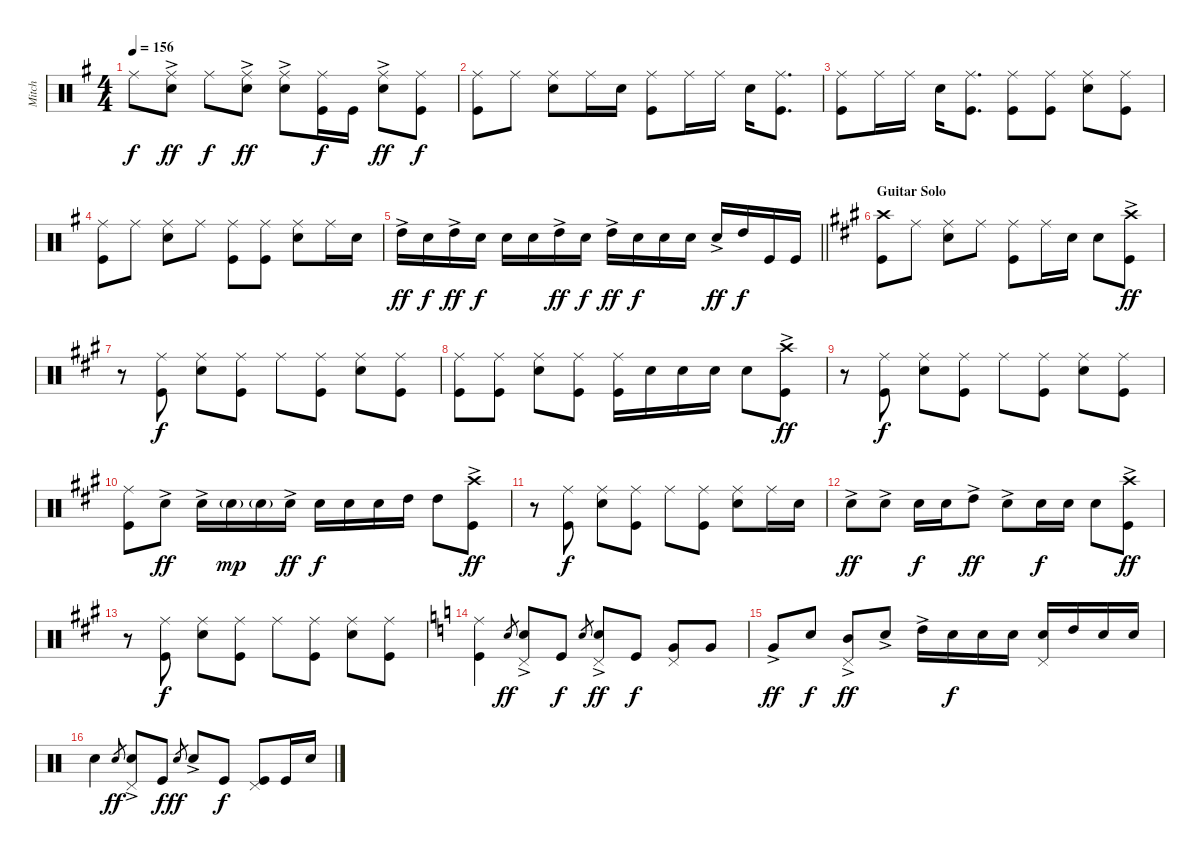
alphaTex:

\track ("Mitch" "Mitch") {instrument percussion}
\staff {score}
\articulation defaults
\ts (4 4)
\tempo 156
\clef neutral
\ks g "Ride (middle)".8{dy f}
("Ride (middle)" "Snare (hit) 2"{ac}).8{dy ff} "Ride (middle)".8{dy f} ("Ride (middle)" "Snare (hit) 2"{ac}).8{dy ff} ("Ride (middle)" "Snare (hit) 2"{ac}).8 ("Ride (middle)" "Kick (hit)").16{dy f} "Kick (hit)".16 ("Ride (middle)" "Snare (hit) 2"{ac}).8{dy ff} ("Ride (middle)" "Kick (hit)").8{dy f} |
("Ride (middle)" "Kick (hit)").8 "Ride (middle)".8 ("Ride (middle)" "Snare (hit) 2").8 "Ride (middle)".16 "Snare (hit) 2".16 ("Ride (middle)" "Kick (hit)").8 "Ride (middle)".16 "Ride (middle)".16 "Snare (hit) 2".16 ("Ride (middle)" "Kick (hit)").8{d} |
("Ride (middle)" "Kick (hit)").8 "Ride (middle)".16 "Ride (middle)".16 "Snare (hit) 2".16 ("Ride (middle)" "Kick (hit)").8{d} ("Ride (middle)" "Kick (hit)").8 ("Ride (middle)" "Kick (hit)").8 ("Ride (middle)" "Snare (hit) 2").8 ("Ride (middle)" "Kick (hit)").8 |
("Ride (middle)" "Kick (hit)").8 "Ride (middle)".8 ("Ride (middle)" "Snare (hit) 2").8 "Ride (middle)".8 ("Ride (middle)" "Kick (hit)").8 ("Ride (middle)" "Kick (hit)").8 ("Ride (middle)" "Snare (hit) 2").8 "Ride (middle)".16 "Snare (hit) 2".16 |
\barLineRight lightlight "High Tom (hit)"{ac}.16{dy ff} "Snare (hit) 2".16{dy f} "High Tom (hit)"{ac}.16{dy ff} "Snare (hit) 2".16{dy f} "Snare (hit) 2".16 "Snare (hit) 2".16 "High Tom (hit)"{ac}.16{dy ff} "Snare (hit) 2".16{dy f} "High Tom (hit)"{ac}.16{dy ff} "Snare (hit) 2".16{dy f} "Snare (hit) 2".16 "Snare (hit) 2".16 "Snare (hit) 2"{ac}.16{dy ff} "High Tom (hit)".16{dy f} "Kick (hit)".16 "Kick (hit)".16
|
\section ("" "Guitar Solo")
\ks a
("Crash high (hit)" "Kick (hit)").8 "Ride (middle)".8 ("Ride (middle)" "Snare (hit) 2").8 "Ride (middle)".8 ("Ride (middle)" "Kick (hit)").8 "Ride (middle)".16 "Snare (hit) 2".16 "Snare (hit) 2".8 ("Crash high (hit)"{ac} "Kick (hit)").8{dy ff} |
r.8 ("Ride (middle)" "Kick (hit)").8{dy f} ("Ride (middle)" "Snare (hit) 2").8 ("Ride (middle)" "Kick (hit)").8 "Ride (middle)".8 ("Ride (middle)" "Kick (hit)").8 ("Ride (middle)" "Snare (hit) 2").8 ("Ride (middle)" "Kick (hit)").8 |
("Ride (middle)" "Kick (hit)").8 ("Ride (middle)" "Kick (hit)").8 ("Ride (middle)" "Snare (hit) 2").8 ("Ride (middle)" "Kick (hit)").8 ("Ride (middle)" "Kick (hit)").16 "Snare (hit) 2".16 "Snare (hit) 2".16 "Snare (hit) 2".16 "Snare (hit) 2".8 ("Crash high (hit)"{ac} "Kick (hit)").8{dy ff} |
r.8 ("Ride (middle)" "Kick (hit)").8{dy f} ("Ride (middle)" "Snare (hit) 2").8 ("Ride (middle)" "Kick (hit)").8 "Ride (middle)".8 ("Ride (middle)" "Kick (hit)").8 ("Ride (middle)" "Snare (hit) 2").8 ("Ride (middle)" "Kick (hit)").8 |
("Ride (middle)" "Kick (hit)").8 "Snare (hit) 2"{ac}.8{dy ff} "Snare (hit) 2"{ac}.16 "Snare (hit) 2"{g}.16{dy mp} "Snare (hit) 2"{g}.16 "Snare (hit) 2"{ac}.16{dy ff} "Snare (hit) 2".16{dy f} "Snare (hit) 2".16 "Snare (hit) 2".16 "High Tom (hit)".16 "High Tom (hit)".8 ("Crash high (hit)"{ac} "Kick (hit)").8{dy ff} |
r.8 ("Ride (middle)" "Kick (hit)").8{dy f} ("Ride (middle)" "Snare (hit) 2").8 ("Ride (middle)" "Kick (hit)").8 "Ride (middle)".8 ("Ride (middle)" "Kick (hit)").8 ("Ride (middle)" "Snare (hit) 2").8 "Ride (middle)".16 "Snare (hit) 2".16 |
"Snare (hit) 2"{ac}.8{dy ff} "Snare (hit) 2"{ac}.8 "Snare (hit) 2".16{dy f} "Snare (hit) 2".16 "High Tom (hit)"{ac}.8{dy ff} "Snare (hit) 2"{ac}.8 "Snare (hit) 2".16{dy f} "Snare (hit) 2".16 "Snare (hit) 2".8 ("Crash high (hit)"{ac} "Kick (hit)").8{dy ff} |
r.8 ("Ride (middle)" "Kick (hit)").8{dy f} ("Ride (middle)" "Snare (hit) 2").8 ("Ride (middle)" "Kick (hit)").8 "Ride (middle)".8 ("Ride (middle)" "Kick (hit)").8 ("Ride (middle)" "Snare (hit) 2").8 ("Ride (middle)" "Kick (hit)").8 |
\ks c
("Ride (middle)" "Kick (hit)").4 "Snare (hit) 2".8{gr dy ff} ("Snare (hit) 2"{ac} "Pedal Hi-Hat (hit)").8 "Kick (hit)".8{dy f} "Snare (hit) 2".8{gr} ("Snare (hit) 2"{ac} "Pedal Hi-Hat (hit)").8{dy ff} "Kick (hit)".8{dy f} ("Very Low Tom (hit)" "Pedal Hi-Hat (hit)").8 "Very Low Tom (hit)".8 |
"Very Low Tom (hit)"{ac}.8{dy ff} "Snare (hit) 2".8{dy f} ("Mid Tom (hit)"{ac} "Pedal Hi-Hat (hit)").8{dy ff} "Snare (hit) 2"{ac}.8 "High Tom (hit)"{ac}.16 "Snare (hit) 2".16{dy f} "Snare (hit) 2".16 "Snare (hit) 2".16 ("Snare (hit) 2" "Pedal Hi-Hat (hit)").16 "High Tom (hit)".16 "Snare (hit) 2".16 "Snare (hit) 2".16 |
"Snare (hit) 2".4 "Snare (hit) 2".8{gr dy ff} ("Snare (hit) 2"{ac} "Pedal Hi-Hat (hit)").8 "Kick (hit)".8{dy f} "Snare (hit) 2".8{gr dy ff} "Snare (hit) 2"{ac}.8 "Kick (hit)".8{dy f} ("Kick (hit)" "Pedal Hi-Hat (hit)").8 "Kick (hit)".16 "Snare (hit) 2".16
